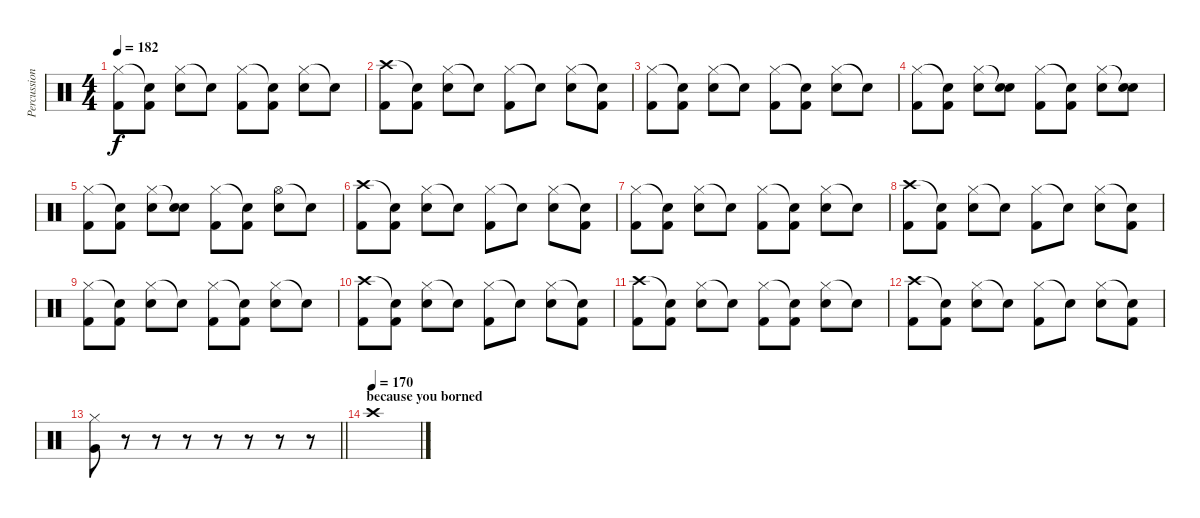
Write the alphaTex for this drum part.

\track ("Percussioni" "Percussion") {instrument percussion}
\staff {score}
\articulation defaults
\ts (4 4)
\tempo 182
\clef neutral
\ks c
("Hi-Hat (closed)" "Kick (hit) 2").8{dy f} ("Snare (hit)"{t} "Kick (hit) 2").8 ("Hi-Hat (closed)" "Snare (hit) 2").8 "Snare (hit)"{t}.8 ("Hi-Hat (closed)" "Kick (hit) 2").8 ("Snare (hit)"{t} "Kick (hit) 2").8 ("Hi-Hat (closed)" "Snare (hit) 2").8 "Snare (hit)"{t}.8 |
("Crash high (hit)" "Kick (hit) 2").8 ("Snare (hit)"{t} "Kick (hit) 2").8 ("Hi-Hat (closed)" "Snare (hit) 2").8 "Snare (hit)"{t}.8 ("Hi-Hat (closed)" "Kick (hit) 2").8 "Snare (hit)"{t}.8 ("Hi-Hat (closed)" "Snare (hit) 2").8 ("Snare (hit)"{t} "Kick (hit) 2").8 |
("Hi-Hat (closed)" "Kick (hit) 2").8 ("Snare (hit)"{t} "Kick (hit) 2").8 ("Hi-Hat (closed)" "Snare (hit) 2").8 "Snare (hit)"{t}.8 ("Hi-Hat (closed)" "Kick (hit) 2").8 ("Snare (hit)"{t} "Kick (hit) 2").8 ("Hi-Hat (closed)" "Snare (hit) 2").8 "Snare (hit)"{t}.8 |
("Hi-Hat (closed)" "Kick (hit) 2").8 ("Snare (hit)"{t} "Kick (hit) 2").8 ("Hi-Hat (closed)" "Snare (hit) 2").8 ("Snare (hit)"{t} "Snare (hit) 2").8 ("Hi-Hat (closed)" "Kick (hit) 2").8 ("Snare (hit)"{t} "Kick (hit) 2").8 ("Hi-Hat (closed)" "Snare (hit) 2").8 ("Snare (hit)"{t} "Snare (hit) 2").8 |
("Hi-Hat (closed)" "Kick (hit) 2").8 ("Snare (hit)"{t} "Kick (hit) 2").8 ("Hi-Hat (closed)" "Snare (hit) 2").8 ("Snare (hit)"{t} "Snare (hit) 2").8 ("Hi-Hat (closed)" "Kick (hit) 2").8 ("Snare (hit)"{t} "Kick (hit) 2").8 ("Hi-Hat (open)" "Snare (hit) 2").8 "Snare (hit)"{t}.8 |
("Crash high (hit)" "Kick (hit) 2").8 ("Snare (hit)"{t} "Kick (hit) 2").8 ("Hi-Hat (closed)" "Snare (hit) 2").8 "Snare (hit)"{t}.8 ("Hi-Hat (closed)" "Kick (hit) 2").8 "Snare (hit)"{t}.8 ("Hi-Hat (closed)" "Snare (hit) 2").8 ("Snare (hit)"{t} "Kick (hit) 2").8 |
("Hi-Hat (closed)" "Kick (hit) 2").8 ("Snare (hit)"{t} "Kick (hit) 2").8 ("Hi-Hat (closed)" "Snare (hit) 2").8 "Snare (hit)"{t}.8 ("Hi-Hat (closed)" "Kick (hit) 2").8 ("Snare (hit)"{t} "Kick (hit) 2").8 ("Hi-Hat (closed)" "Snare (hit) 2").8 "Snare (hit)"{t}.8 |
("Crash high (hit)" "Kick (hit) 2").8 ("Snare (hit)"{t} "Kick (hit) 2").8 ("Hi-Hat (closed)" "Snare (hit) 2").8 "Snare (hit)"{t}.8 ("Hi-Hat (closed)" "Kick (hit) 2").8 "Snare (hit)"{t}.8 ("Hi-Hat (closed)" "Snare (hit) 2").8 ("Snare (hit)"{t} "Kick (hit) 2").8 |
("Hi-Hat (closed)" "Kick (hit) 2").8 ("Snare (hit)"{t} "Kick (hit) 2").8 ("Hi-Hat (closed)" "Snare (hit) 2").8 "Snare (hit)"{t}.8 ("Hi-Hat (closed)" "Kick (hit) 2").8 ("Snare (hit)"{t} "Kick (hit) 2").8 ("Hi-Hat (closed)" "Snare (hit) 2").8 "Snare (hit)"{t}.8 |
("Crash high (hit)" "Kick (hit) 2").8 ("Snare (hit)"{t} "Kick (hit) 2").8 ("Hi-Hat (closed)" "Snare (hit) 2").8 "Snare (hit)"{t}.8 ("Hi-Hat (closed)" "Kick (hit) 2").8 "Snare (hit)"{t}.8 ("Hi-Hat (closed)" "Snare (hit) 2").8 ("Snare (hit)"{t} "Kick (hit) 2").8 |
("Crash high (hit)" "Kick (hit) 2").8 ("Snare (hit)"{t} "Kick (hit) 2").8 ("Hi-Hat (closed)" "Snare (hit) 2").8 "Snare (hit)"{t}.8 ("Hi-Hat (closed)" "Kick (hit) 2").8 ("Snare (hit)"{t} "Kick (hit) 2").8 ("Hi-Hat (closed)" "Snare (hit) 2").8 "Snare (hit)"{t}.8 |
("Crash high (hit)" "Kick (hit) 2").8 ("Snare (hit)"{t} "Kick (hit) 2").8 ("Hi-Hat (closed)" "Snare (hit) 2").8 "Snare (hit)"{t}.8 ("Hi-Hat (closed)" "Kick (hit) 2").8 "Snare (hit)"{t}.8 ("Hi-Hat (closed)" "Snare (hit) 2").8 ("Snare (hit)"{t} "Kick (hit) 2").8 |
\barLineRight lightlight
("Hi-Hat (closed)" "Very Low Tom (hit)").8 r.8 r.8 r.8 r.8 r.8 r.8 r.8 |
\section ("" "because you borned")
\tempo (170)
"Crash high (hit)".1
